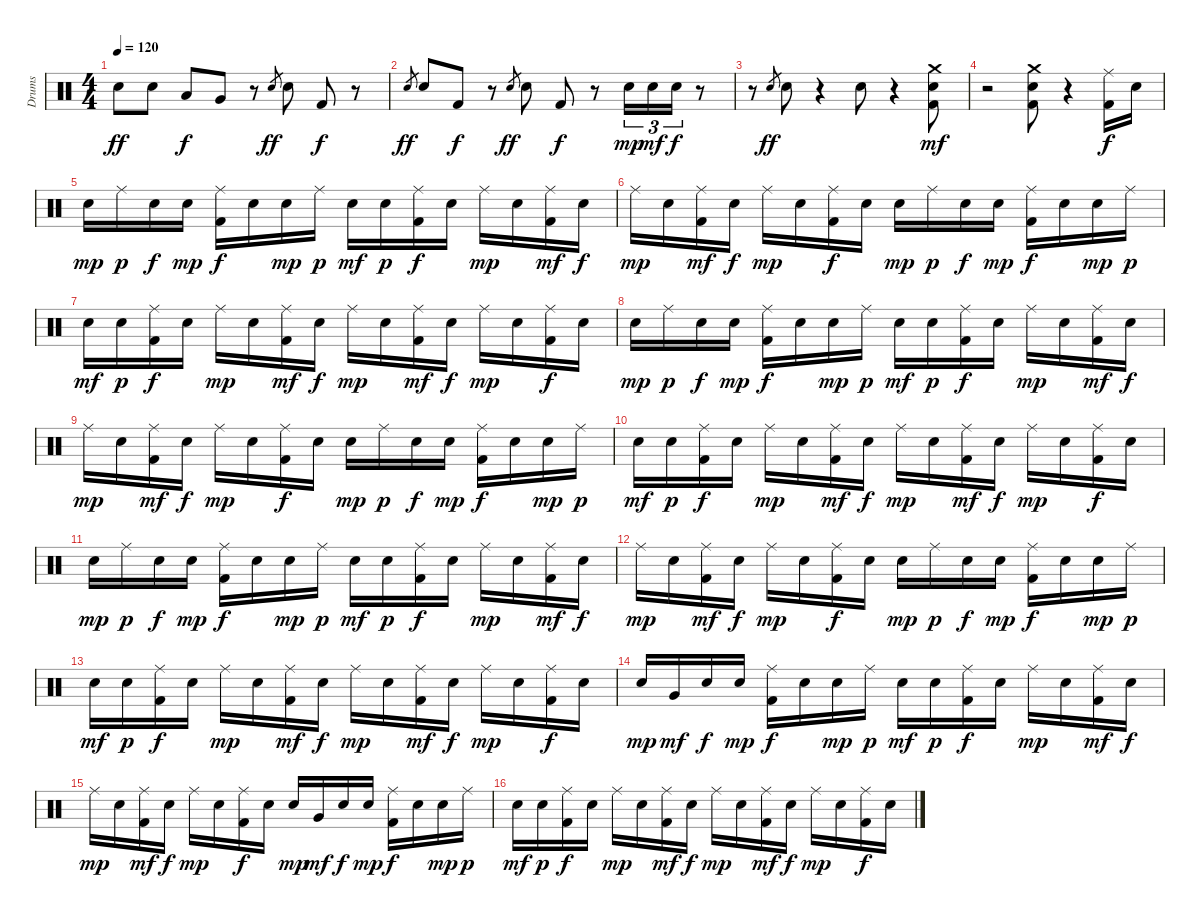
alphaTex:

\track ("Drums" "Drums") {instrument percussion}
\staff {score}
\articulation defaults
\ts (4 4)
\tempo 120
\clef neutral
\ks c "Electric Snare (hit)".8{dy ff} "Electric Snare (hit)".8 "Low Tom (hit)".8{dy f} "Very Low Tom (hit)".8
r.8 "Electric Snare (hit)".8{gr dy ff} "Electric Snare (hit)".8 "Kick (hit) 2".8{dy f} r.8 |
"Electric Snare (hit)".8{gr dy ff} "Electric Snare (hit)".8 "Kick (hit) 2".8{dy f} r.8 "Electric Snare (hit)".8{gr dy ff} "Electric Snare (hit)".8 "Kick (hit) 2".8{dy f} r.8 "Electric Snare (hit)".16{tu (3 2) dy mp} "Electric Snare (hit)".16{tu (3 2) dy mf} "Electric Snare (hit)".16{tu (3 2) dy f} r.8 |
r.8 "Electric Snare (hit)".8{gr dy ff} "Electric Snare (hit)".8 r.4 "Electric Snare (hit)".8 r.4 ("Kick (hit) 2" "Electric Snare (hit)" "Crash medium (hit)").8{dy mf} |
r.2 ("Kick (hit) 2" "Electric Snare (hit)" "Crash medium (hit)").8 r.4 ("Kick (hit) 2" "Ride (middle)").16{dy f} "Electric Snare (hit)".16 |
"Electric Snare (hit)".16{dy mp} "Ride (middle)".16{dy p} "Electric Snare (hit)".16{dy f} "Electric Snare (hit)".16{dy mp} ("Kick (hit) 2" "Ride (middle)").16{dy f} "Electric Snare (hit)".16 "Electric Snare (hit)".16{dy mp} "Ride (middle)".16{dy p} "Electric Snare (hit)".16{dy mf} "Electric Snare (hit)".16{dy p} ("Kick (hit) 2" "Ride (middle)").16{dy f} "Electric Snare (hit)".16 "Ride (middle)".16{dy mp} "Electric Snare (hit)".16 ("Kick (hit) 2" "Ride (middle)").16{dy mf} "Electric Snare (hit)".16{dy f} |
"Ride (middle)".16{dy mp} "Electric Snare (hit)".16 ("Kick (hit) 2" "Ride (middle)").16{dy mf} "Electric Snare (hit)".16{dy f} "Ride (middle)".16{dy mp} "Electric Snare (hit)".16 ("Kick (hit) 2" "Ride (middle)").16{dy f} "Electric Snare (hit)".16 "Electric Snare (hit)".16{dy mp} "Ride (middle)".16{dy p} "Electric Snare (hit)".16{dy f} "Electric Snare (hit)".16{dy mp} ("Kick (hit) 2" "Ride (middle)").16{dy f} "Electric Snare (hit)".16 "Electric Snare (hit)".16{dy mp} "Ride (middle)".16{dy p} |
"Electric Snare (hit)".16{dy mf} "Electric Snare (hit)".16{dy p} ("Kick (hit) 2" "Ride (middle)").16{dy f} "Electric Snare (hit)".16 "Ride (middle)".16{dy mp} "Electric Snare (hit)".16 ("Kick (hit) 2" "Ride (middle)").16{dy mf} "Electric Snare (hit)".16{dy f} "Ride (middle)".16{dy mp} "Electric Snare (hit)".16 ("Kick (hit) 2" "Ride (middle)").16{dy mf} "Electric Snare (hit)".16{dy f} "Ride (middle)".16{dy mp} "Electric Snare (hit)".16 ("Kick (hit) 2" "Ride (middle)").16{dy f} "Electric Snare (hit)".16 |
"Electric Snare (hit)".16{dy mp} "Ride (middle)".16{dy p} "Electric Snare (hit)".16{dy f} "Electric Snare (hit)".16{dy mp} ("Kick (hit) 2" "Ride (middle)").16{dy f} "Electric Snare (hit)".16 "Electric Snare (hit)".16{dy mp} "Ride (middle)".16{dy p} "Electric Snare (hit)".16{dy mf} "Electric Snare (hit)".16{dy p} ("Kick (hit) 2" "Ride (middle)").16{dy f} "Electric Snare (hit)".16 "Ride (middle)".16{dy mp} "Electric Snare (hit)".16 ("Kick (hit) 2" "Ride (middle)").16{dy mf} "Electric Snare (hit)".16{dy f} |
"Ride (middle)".16{dy mp} "Electric Snare (hit)".16 ("Kick (hit) 2" "Ride (middle)").16{dy mf} "Electric Snare (hit)".16{dy f} "Ride (middle)".16{dy mp} "Electric Snare (hit)".16 ("Kick (hit) 2" "Ride (middle)").16{dy f} "Electric Snare (hit)".16 "Electric Snare (hit)".16{dy mp} "Ride (middle)".16{dy p} "Electric Snare (hit)".16{dy f} "Electric Snare (hit)".16{dy mp} ("Kick (hit) 2" "Ride (middle)").16{dy f} "Electric Snare (hit)".16 "Electric Snare (hit)".16{dy mp} "Ride (middle)".16{dy p} |
"Electric Snare (hit)".16{dy mf} "Electric Snare (hit)".16{dy p} ("Kick (hit) 2" "Ride (middle)").16{dy f} "Electric Snare (hit)".16 "Ride (middle)".16{dy mp} "Electric Snare (hit)".16 ("Kick (hit) 2" "Ride (middle)").16{dy mf} "Electric Snare (hit)".16{dy f} "Ride (middle)".16{dy mp} "Electric Snare (hit)".16 ("Kick (hit) 2" "Ride (middle)").16{dy mf} "Electric Snare (hit)".16{dy f} "Ride (middle)".16{dy mp} "Electric Snare (hit)".16 ("Kick (hit) 2" "Ride (middle)").16{dy f} "Electric Snare (hit)".16 |
"Electric Snare (hit)".16{dy mp} "Ride (middle)".16{dy p} "Electric Snare (hit)".16{dy f} "Electric Snare (hit)".16{dy mp} ("Kick (hit) 2" "Ride (middle)").16{dy f} "Electric Snare (hit)".16 "Electric Snare (hit)".16{dy mp} "Ride (middle)".16{dy p} "Electric Snare (hit)".16{dy mf} "Electric Snare (hit)".16{dy p} ("Kick (hit) 2" "Ride (middle)").16{dy f} "Electric Snare (hit)".16 "Ride (middle)".16{dy mp} "Electric Snare (hit)".16 ("Kick (hit) 2" "Ride (middle)").16{dy mf} "Electric Snare (hit)".16{dy f} |
"Ride (middle)".16{dy mp} "Electric Snare (hit)".16 ("Kick (hit) 2" "Ride (middle)").16{dy mf} "Electric Snare (hit)".16{dy f} "Ride (middle)".16{dy mp} "Electric Snare (hit)".16 ("Kick (hit) 2" "Ride (middle)").16{dy f} "Electric Snare (hit)".16 "Electric Snare (hit)".16{dy mp} "Ride (middle)".16{dy p} "Electric Snare (hit)".16{dy f} "Electric Snare (hit)".16{dy mp} ("Kick (hit) 2" "Ride (middle)").16{dy f} "Electric Snare (hit)".16 "Electric Snare (hit)".16{dy mp} "Ride (middle)".16{dy p} |
"Electric Snare (hit)".16{dy mf} "Electric Snare (hit)".16{dy p} ("Kick (hit) 2" "Ride (middle)").16{dy f} "Electric Snare (hit)".16 "Ride (middle)".16{dy mp} "Electric Snare (hit)".16 ("Kick (hit) 2" "Ride (middle)").16{dy mf} "Electric Snare (hit)".16{dy f} "Ride (middle)".16{dy mp} "Electric Snare (hit)".16 ("Kick (hit) 2" "Ride (middle)").16{dy mf} "Electric Snare (hit)".16{dy f} "Ride (middle)".16{dy mp} "Electric Snare (hit)".16 ("Kick (hit) 2" "Ride (middle)").16{dy f} "Electric Snare (hit)".16 |
"Electric Snare (hit)".16{dy mp} "Very Low Tom (hit)".16{dy mf} "Electric Snare (hit)".16{dy f} "Electric Snare (hit)".16{dy mp} ("Kick (hit) 2" "Ride (middle)").16{dy f} "Electric Snare (hit)".16 "Electric Snare (hit)".16{dy mp} "Ride (middle)".16{dy p} "Electric Snare (hit)".16{dy mf} "Electric Snare (hit)".16{dy p} ("Kick (hit) 2" "Ride (middle)").16{dy f} "Electric Snare (hit)".16 "Ride (middle)".16{dy mp} "Electric Snare (hit)".16 ("Kick (hit) 2" "Ride (middle)").16{dy mf} "Electric Snare (hit)".16{dy f} |
"Ride (middle)".16{dy mp} "Electric Snare (hit)".16 ("Kick (hit) 2" "Ride (middle)").16{dy mf} "Electric Snare (hit)".16{dy f} "Ride (middle)".16{dy mp} "Electric Snare (hit)".16 ("Kick (hit) 2" "Ride (middle)").16{dy f} "Electric Snare (hit)".16 "Electric Snare (hit)".16{dy mp} "Very Low Tom (hit)".16{dy mf} "Electric Snare (hit)".16{dy f} "Electric Snare (hit)".16{dy mp} ("Kick (hit) 2" "Ride (middle)").16{dy f} "Electric Snare (hit)".16 "Electric Snare (hit)".16{dy mp} "Ride (middle)".16{dy p} |
"Electric Snare (hit)".16{dy mf} "Electric Snare (hit)".16{dy p} ("Kick (hit) 2" "Ride (middle)").16{dy f} "Electric Snare (hit)".16 "Ride (middle)".16{dy mp} "Electric Snare (hit)".16 ("Kick (hit) 2" "Ride (middle)").16{dy mf} "Electric Snare (hit)".16{dy f} "Ride (middle)".16{dy mp} "Electric Snare (hit)".16 ("Kick (hit) 2" "Ride (middle)").16{dy mf} "Electric Snare (hit)".16{dy f} "Ride (middle)".16{dy mp} "Electric Snare (hit)".16 ("Kick (hit) 2" "Ride (middle)").16{dy f} "Electric Snare (hit)".16
